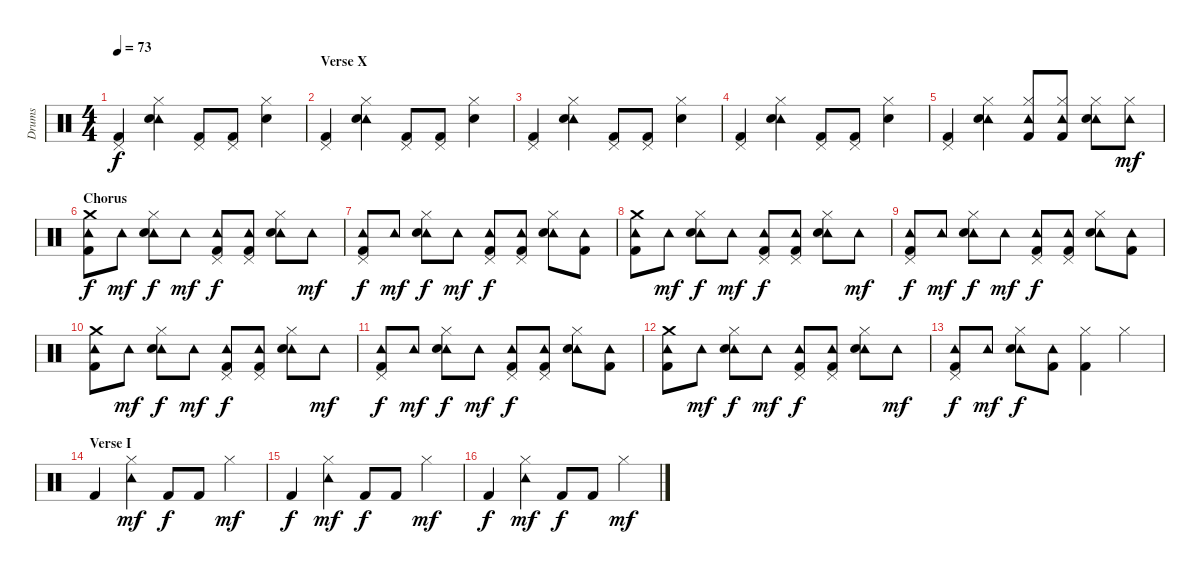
\track ("Drums" "Drums") {instrument percussion}
\staff {score}
\articulation defaults
\ts (4 4)
\tempo 73
\clef neutral
\ks c
("Pedal Hi-Hat (hit)" "Kick (hit) 2").4{dy f} ("Hi-Hat (closed)" "Tambourine (hit)" "Snare (hit) 2").4 ("Pedal Hi-Hat (hit)" "Kick (hit) 2").8 ("Pedal Hi-Hat (hit)" "Kick (hit) 2").8 ("Hi-Hat (closed)" "Snare (hit) 2").4 |
\section ("" "Verse X")
("Pedal Hi-Hat (hit)" "Kick (hit) 2").4 ("Hi-Hat (closed)" "Tambourine (hit)" "Snare (hit) 2").4 ("Pedal Hi-Hat (hit)" "Kick (hit) 2").8 ("Pedal Hi-Hat (hit)" "Kick (hit) 2").8 ("Hi-Hat (closed)" "Snare (hit) 2").4 |
("Pedal Hi-Hat (hit)" "Kick (hit) 2").4 ("Hi-Hat (closed)" "Tambourine (hit)" "Snare (hit) 2").4 ("Pedal Hi-Hat (hit)" "Kick (hit) 2").8 ("Pedal Hi-Hat (hit)" "Kick (hit) 2").8 ("Hi-Hat (closed)" "Snare (hit) 2").4 |
("Pedal Hi-Hat (hit)" "Kick (hit) 2").4 ("Hi-Hat (closed)" "Tambourine (hit)" "Snare (hit) 2").4 ("Pedal Hi-Hat (hit)" "Kick (hit) 2").8 ("Pedal Hi-Hat (hit)" "Kick (hit) 2").8 ("Hi-Hat (closed)" "Snare (hit) 2").4 |
("Pedal Hi-Hat (hit)" "Kick (hit) 2").4 ("Hi-Hat (closed)" "Tambourine (hit)" "Snare (hit) 2").4 ("Hi-Hat (closed)" "Tambourine (hit)" "Kick (hit) 2").8 ("Hi-Hat (closed)" "Tambourine (hit)" "Kick (hit) 2").8 ("Hi-Hat (closed)" "Tambourine (hit)" "Snare (hit) 2").8 ("Hi-Hat (closed)" "Tambourine (hit)").8{dy mf} |
\section ("" "Chorus")
("Crash medium (hit)" "Tambourine (hit)" "Kick (hit) 2").8{dy f} "Tambourine (hit)".8{dy mf} ("Hi-Hat (closed)" "Tambourine (hit)" "Snare (hit) 2").8{dy f} "Tambourine (hit)".8{dy mf} ("Pedal Hi-Hat (hit)" "Tambourine (hit)" "Kick (hit) 2").8{dy f} ("Pedal Hi-Hat (hit)" "Tambourine (hit)" "Kick (hit) 2").8 ("Hi-Hat (closed)" "Tambourine (hit)" "Snare (hit) 2").8 "Tambourine (hit)".8{dy mf} |
("Pedal Hi-Hat (hit)" "Tambourine (hit)" "Kick (hit) 2").8{dy f} "Tambourine (hit)".8{dy mf} ("Hi-Hat (closed)" "Tambourine (hit)" "Snare (hit) 2").8{dy f} "Tambourine (hit)".8{dy mf} ("Pedal Hi-Hat (hit)" "Tambourine (hit)" "Kick (hit) 2").8{dy f} ("Pedal Hi-Hat (hit)" "Tambourine (hit)" "Kick (hit) 2").8 ("Hi-Hat (closed)" "Tambourine (hit)" "Snare (hit) 2").8 ("Tambourine (hit)" "Kick (hit) 2").8 |
("Crash medium (hit)" "Tambourine (hit)" "Kick (hit) 2").8 "Tambourine (hit)".8{dy mf} ("Hi-Hat (closed)" "Tambourine (hit)" "Snare (hit) 2").8{dy f} "Tambourine (hit)".8{dy mf} ("Pedal Hi-Hat (hit)" "Tambourine (hit)" "Kick (hit) 2").8{dy f} ("Pedal Hi-Hat (hit)" "Tambourine (hit)" "Kick (hit) 2").8 ("Hi-Hat (closed)" "Tambourine (hit)" "Snare (hit) 2").8 "Tambourine (hit)".8{dy mf} |
("Pedal Hi-Hat (hit)" "Tambourine (hit)" "Kick (hit) 2").8{dy f} "Tambourine (hit)".8{dy mf} ("Hi-Hat (closed)" "Tambourine (hit)" "Snare (hit) 2").8{dy f} "Tambourine (hit)".8{dy mf} ("Pedal Hi-Hat (hit)" "Tambourine (hit)" "Kick (hit) 2").8{dy f} ("Pedal Hi-Hat (hit)" "Tambourine (hit)" "Kick (hit) 2").8 ("Hi-Hat (closed)" "Tambourine (hit)" "Snare (hit) 2").8 ("Tambourine (hit)" "Kick (hit) 2").8 |
("Crash medium (hit)" "Tambourine (hit)" "Kick (hit) 2").8 "Tambourine (hit)".8{dy mf} ("Hi-Hat (closed)" "Tambourine (hit)" "Snare (hit) 2").8{dy f} "Tambourine (hit)".8{dy mf} ("Pedal Hi-Hat (hit)" "Tambourine (hit)" "Kick (hit) 2").8{dy f} ("Pedal Hi-Hat (hit)" "Tambourine (hit)" "Kick (hit) 2").8 ("Hi-Hat (closed)" "Tambourine (hit)" "Snare (hit) 2").8 "Tambourine (hit)".8{dy mf} |
("Pedal Hi-Hat (hit)" "Tambourine (hit)" "Kick (hit) 2").8{dy f} "Tambourine (hit)".8{dy mf} ("Hi-Hat (closed)" "Tambourine (hit)" "Snare (hit) 2").8{dy f} "Tambourine (hit)".8{dy mf} ("Pedal Hi-Hat (hit)" "Tambourine (hit)" "Kick (hit) 2").8{dy f} ("Pedal Hi-Hat (hit)" "Tambourine (hit)" "Kick (hit) 2").8 ("Hi-Hat (closed)" "Tambourine (hit)" "Snare (hit) 2").8 ("Tambourine (hit)" "Kick (hit) 2").8 |
("Crash medium (hit)" "Tambourine (hit)" "Kick (hit) 2").8 "Tambourine (hit)".8{dy mf} ("Hi-Hat (closed)" "Tambourine (hit)" "Snare (hit) 2").8{dy f} "Tambourine (hit)".8{dy mf} ("Pedal Hi-Hat (hit)" "Tambourine (hit)" "Kick (hit) 2").8{dy f} ("Pedal Hi-Hat (hit)" "Tambourine (hit)" "Kick (hit) 2").8 ("Hi-Hat (closed)" "Tambourine (hit)" "Snare (hit) 2").8 "Tambourine (hit)".8{dy mf} |
("Pedal Hi-Hat (hit)" "Tambourine (hit)" "Kick (hit) 2").8{dy f} "Tambourine (hit)".8{dy mf} ("Hi-Hat (closed)" "Tambourine (hit)" "Snare (hit) 2").8{dy f} ("Tambourine (hit)" "Kick (hit) 2").8 ("Hi-Hat (closed)" "Kick (hit) 2").4 "Hi-Hat (closed)".4 |
\section ("" "Verse I")
"Kick (hit) 2".4 ("Hi-Hat (closed)" "Tambourine (hit)").4{dy mf} "Kick (hit) 2".8{dy f} "Kick (hit) 2".8 "Hi-Hat (closed)".4{dy mf} |
"Kick (hit) 2".4{dy f} ("Hi-Hat (closed)" "Tambourine (hit)").4{dy mf} "Kick (hit) 2".8{dy f} "Kick (hit) 2".8 "Hi-Hat (closed)".4{dy mf} |
"Kick (hit) 2".4{dy f} ("Hi-Hat (closed)" "Tambourine (hit)").4{dy mf} "Kick (hit) 2".8{dy f} "Kick (hit) 2".8 "Hi-Hat (closed)".4{dy mf}
